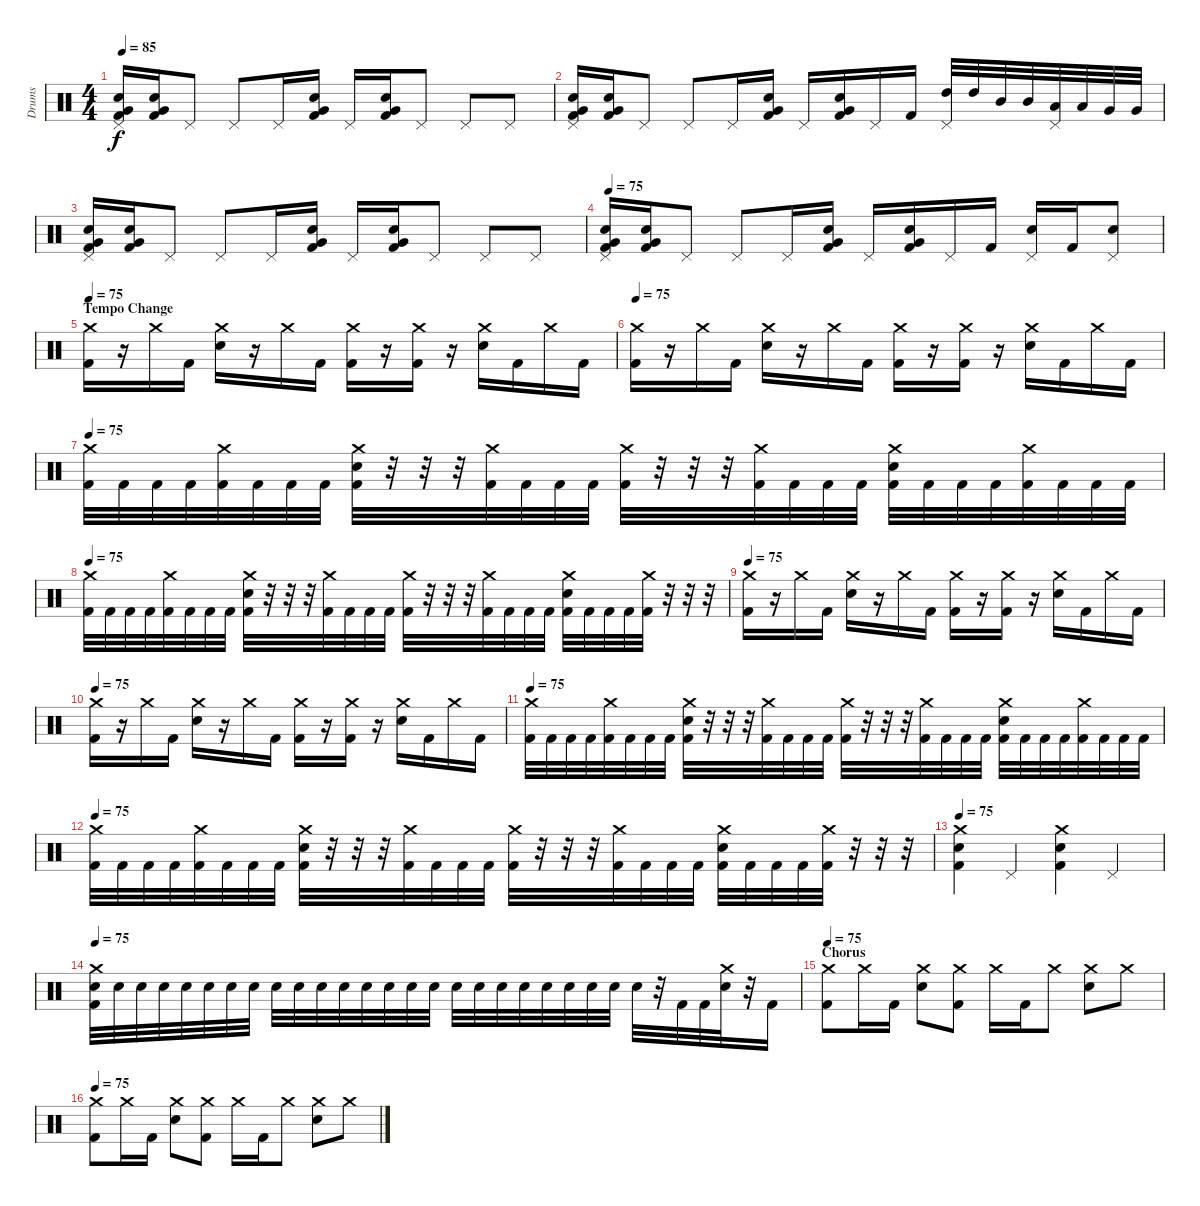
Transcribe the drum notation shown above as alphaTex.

\track ("Drums" "Drums") {instrument percussion}
\staff {score}
\articulation defaults
\ts (4 4)
\tempo 85
\clef neutral
\ks c
("Pedal Hi-Hat (hit)" "Electric Snare (hit)" "Very Low Tom (hit)" "Kick (hit) 2").16{dy f} ("Electric Snare (hit)" "Very Low Tom (hit)" "Kick (hit) 2").16 "Pedal Hi-Hat (hit)".8 "Pedal Hi-Hat (hit)".8 "Pedal Hi-Hat (hit)".16 ("Electric Snare (hit)" "Very Low Tom (hit)" "Kick (hit) 2").16 "Pedal Hi-Hat (hit)".16 ("Electric Snare (hit)" "Very Low Tom (hit)" "Kick (hit) 2").16 "Pedal Hi-Hat (hit)".8 "Pedal Hi-Hat (hit)".8 "Pedal Hi-Hat (hit)".8 |
("Pedal Hi-Hat (hit)" "Electric Snare (hit)" "Very Low Tom (hit)" "Kick (hit) 2").16 ("Electric Snare (hit)" "Very Low Tom (hit)" "Kick (hit) 2").16 "Pedal Hi-Hat (hit)".8 "Pedal Hi-Hat (hit)".8 "Pedal Hi-Hat (hit)".16 ("Electric Snare (hit)" "Very Low Tom (hit)" "Kick (hit) 2").16 "Pedal Hi-Hat (hit)".16 ("Electric Snare (hit)" "Very Low Tom (hit)" "Kick (hit) 2").16 "Pedal Hi-Hat (hit)".16 "Kick (hit) 2".16 ("Pedal Hi-Hat (hit)" "High Tom (hit)").32 "High Tom (hit)".32 "Mid Tom (hit)".32 "Mid Tom (hit)".32 ("Pedal Hi-Hat (hit)" "Low Tom (hit)").32 "Low Tom (hit)".32 "Very Low Tom (hit)".32 "Very Low Tom (hit)".32 |
("Pedal Hi-Hat (hit)" "Electric Snare (hit)" "Very Low Tom (hit)" "Kick (hit) 2").16 ("Electric Snare (hit)" "Very Low Tom (hit)" "Kick (hit) 2").16 "Pedal Hi-Hat (hit)".8 "Pedal Hi-Hat (hit)".8 "Pedal Hi-Hat (hit)".16 ("Electric Snare (hit)" "Very Low Tom (hit)" "Kick (hit) 2").16 "Pedal Hi-Hat (hit)".16 ("Electric Snare (hit)" "Very Low Tom (hit)" "Kick (hit) 2").16 "Pedal Hi-Hat (hit)".8 "Pedal Hi-Hat (hit)".8 "Pedal Hi-Hat (hit)".8 |
\tempo 75
("Pedal Hi-Hat (hit)" "Electric Snare (hit)" "Very Low Tom (hit)" "Kick (hit) 2").16 ("Electric Snare (hit)" "Very Low Tom (hit)" "Kick (hit) 2").16 "Pedal Hi-Hat (hit)".8 "Pedal Hi-Hat (hit)".8 "Pedal Hi-Hat (hit)".16 ("Electric Snare (hit)" "Very Low Tom (hit)" "Kick (hit) 2").16 "Pedal Hi-Hat (hit)".16 ("Electric Snare (hit)" "Very Low Tom (hit)" "Kick (hit) 2").16 "Pedal Hi-Hat (hit)".16 "Kick (hit) 2".16 ("Pedal Hi-Hat (hit)" "Electric Snare (hit)").16 "Kick (hit) 2".16 ("Pedal Hi-Hat (hit)" "Electric Snare (hit)").8 |
\section ("" "Tempo Change")
\tempo 75
("Crash medium (hit)" "Kick (hit) 2").16 r.16 "Crash medium (hit)".16 "Kick (hit) 2".16 ("Crash medium (hit)" "Electric Snare (hit)").16 r.16 "Crash medium (hit)".16 "Kick (hit) 2".16 ("Crash medium (hit)" "Kick (hit) 2").16 r.16 ("Crash medium (hit)" "Kick (hit) 2").16 r.16 ("Crash medium (hit)" "Electric Snare (hit)").16 "Kick (hit) 2".16 "Crash medium (hit)".16 "Kick (hit) 2".16 |
\tempo 75
("Crash medium (hit)" "Kick (hit) 2").16 r.16 "Crash medium (hit)".16 "Kick (hit) 2".16 ("Crash medium (hit)" "Electric Snare (hit)").16 r.16 "Crash medium (hit)".16 "Kick (hit) 2".16 ("Crash medium (hit)" "Kick (hit) 2").16 r.16 ("Crash medium (hit)" "Kick (hit) 2").16 r.16 ("Crash medium (hit)" "Electric Snare (hit)").16 "Kick (hit) 2".16 "Crash medium (hit)".16 "Kick (hit) 2".16 |
\tempo 75
("Crash medium (hit)" "Kick (hit) 2").32 "Kick (hit) 2".32 "Kick (hit) 2".32 "Kick (hit) 2".32 ("Crash medium (hit)" "Kick (hit) 2").32 "Kick (hit) 2".32 "Kick (hit) 2".32 "Kick (hit) 2".32 ("Crash medium (hit)" "Electric Snare (hit)" "Kick (hit) 2").32 r.32 r.32 r.32 ("Crash medium (hit)" "Kick (hit) 2").32 "Kick (hit) 2".32 "Kick (hit) 2".32 "Kick (hit) 2".32 ("Crash medium (hit)" "Kick (hit) 2").32 r.32 r.32 r.32 ("Crash medium (hit)" "Kick (hit) 2").32 "Kick (hit) 2".32 "Kick (hit) 2".32 "Kick (hit) 2".32 ("Crash medium (hit)" "Electric Snare (hit)" "Kick (hit) 2").32 "Kick (hit) 2".32 "Kick (hit) 2".32 "Kick (hit) 2".32 ("Crash medium (hit)" "Kick (hit) 2").32 "Kick (hit) 2".32 "Kick (hit) 2".32 "Kick (hit) 2".32 |
\tempo 75
("Crash medium (hit)" "Kick (hit) 2").32 "Kick (hit) 2".32 "Kick (hit) 2".32 "Kick (hit) 2".32 ("Crash medium (hit)" "Kick (hit) 2").32 "Kick (hit) 2".32 "Kick (hit) 2".32 "Kick (hit) 2".32 ("Crash medium (hit)" "Electric Snare (hit)" "Kick (hit) 2").32 r.32 r.32 r.32 ("Crash medium (hit)" "Kick (hit) 2").32 "Kick (hit) 2".32 "Kick (hit) 2".32 "Kick (hit) 2".32 ("Crash medium (hit)" "Kick (hit) 2").32 r.32 r.32 r.32 ("Crash medium (hit)" "Kick (hit) 2").32 "Kick (hit) 2".32 "Kick (hit) 2".32 "Kick (hit) 2".32 ("Crash medium (hit)" "Electric Snare (hit)" "Kick (hit) 2").32 "Kick (hit) 2".32 "Kick (hit) 2".32 "Kick (hit) 2".32 ("Crash medium (hit)" "Kick (hit) 2").32 r.32 r.32 r.32 |
\tempo 75
("Crash medium (hit)" "Kick (hit) 2").16 r.16 "Crash medium (hit)".16 "Kick (hit) 2".16 ("Crash medium (hit)" "Electric Snare (hit)").16 r.16 "Crash medium (hit)".16 "Kick (hit) 2".16 ("Crash medium (hit)" "Kick (hit) 2").16 r.16 ("Crash medium (hit)" "Kick (hit) 2").16 r.16 ("Crash medium (hit)" "Electric Snare (hit)").16 "Kick (hit) 2".16 "Crash medium (hit)".16 "Kick (hit) 2".16 |
\tempo 75
("Crash medium (hit)" "Kick (hit) 2").16 r.16 "Crash medium (hit)".16 "Kick (hit) 2".16 ("Crash medium (hit)" "Electric Snare (hit)").16 r.16 "Crash medium (hit)".16 "Kick (hit) 2".16 ("Crash medium (hit)" "Kick (hit) 2").16 r.16 ("Crash medium (hit)" "Kick (hit) 2").16 r.16 ("Crash medium (hit)" "Electric Snare (hit)").16 "Kick (hit) 2".16 "Crash medium (hit)".16 "Kick (hit) 2".16 |
\tempo 75
("Crash medium (hit)" "Kick (hit) 2").32 "Kick (hit) 2".32 "Kick (hit) 2".32 "Kick (hit) 2".32 ("Crash medium (hit)" "Kick (hit) 2").32 "Kick (hit) 2".32 "Kick (hit) 2".32 "Kick (hit) 2".32 ("Crash medium (hit)" "Electric Snare (hit)" "Kick (hit) 2").32 r.32 r.32 r.32 ("Crash medium (hit)" "Kick (hit) 2").32 "Kick (hit) 2".32 "Kick (hit) 2".32 "Kick (hit) 2".32 ("Crash medium (hit)" "Kick (hit) 2").32 r.32 r.32 r.32 ("Crash medium (hit)" "Kick (hit) 2").32 "Kick (hit) 2".32 "Kick (hit) 2".32 "Kick (hit) 2".32 ("Crash medium (hit)" "Electric Snare (hit)" "Kick (hit) 2").32 "Kick (hit) 2".32 "Kick (hit) 2".32 "Kick (hit) 2".32 ("Crash medium (hit)" "Kick (hit) 2").32 "Kick (hit) 2".32 "Kick (hit) 2".32 "Kick (hit) 2".32 |
\tempo 75
("Crash medium (hit)" "Kick (hit) 2").32 "Kick (hit) 2".32 "Kick (hit) 2".32 "Kick (hit) 2".32 ("Crash medium (hit)" "Kick (hit) 2").32 "Kick (hit) 2".32 "Kick (hit) 2".32 "Kick (hit) 2".32 ("Crash medium (hit)" "Electric Snare (hit)" "Kick (hit) 2").32 r.32 r.32 r.32 ("Crash medium (hit)" "Kick (hit) 2").32 "Kick (hit) 2".32 "Kick (hit) 2".32 "Kick (hit) 2".32 ("Crash medium (hit)" "Kick (hit) 2").32 r.32 r.32 r.32 ("Crash medium (hit)" "Kick (hit) 2").32 "Kick (hit) 2".32 "Kick (hit) 2".32 "Kick (hit) 2".32 ("Crash medium (hit)" "Electric Snare (hit)" "Kick (hit) 2").32 "Kick (hit) 2".32 "Kick (hit) 2".32 "Kick (hit) 2".32 ("Crash medium (hit)" "Kick (hit) 2").32 r.32 r.32 r.32 |
\tempo 75
("Crash medium (hit)" "Electric Snare (hit)" "Kick (hit) 2").4 "Pedal Hi-Hat (hit)".4 ("Crash medium (hit)" "Electric Snare (hit)" "Kick (hit) 2").4 "Pedal Hi-Hat (hit)".4 |
\tempo 75
("Crash medium (hit)" "Electric Snare (hit)" "Kick (hit) 2").32 "Electric Snare (hit)".32{volume 4} "Electric Snare (hit)".32{volume 13} "Electric Snare (hit)".32 "Electric Snare (hit)".32 "Electric Snare (hit)".32 "Electric Snare (hit)".32 "Electric Snare (hit)".32 "Electric Snare (hit)".32 "Electric Snare (hit)".32 "Electric Snare (hit)".32 "Electric Snare (hit)".32 "Electric Snare (hit)".32 "Electric Snare (hit)".32 "Electric Snare (hit)".32 "Electric Snare (hit)".32 "Electric Snare (hit)".32 "Electric Snare (hit)".32 "Electric Snare (hit)".32 "Electric Snare (hit)".32 "Electric Snare (hit)".32 "Electric Snare (hit)".32 "Electric Snare (hit)".32 "Electric Snare (hit)".32 "Electric Snare (hit)".32 r.32 "Kick (hit) 2".32 "Kick (hit) 2".32 ("Crash medium (hit)" "Electric Snare (hit)").32 r.32 "Kick (hit) 2".16 |
\section ("" "Chorus")
\tempo 75
("Crash medium (hit)" "Kick (hit) 2").8 "Crash medium (hit)".16 "Kick (hit) 2".16 ("Crash medium (hit)" "Electric Snare (hit)").8 ("Crash medium (hit)" "Kick (hit) 2").8 "Crash medium (hit)".16 "Kick (hit) 2".16 "Crash medium (hit)".8 ("Crash medium (hit)" "Electric Snare (hit)").8 "Crash medium (hit)".8 |
\tempo 75
("Crash medium (hit)" "Kick (hit) 2").8 "Crash medium (hit)".16 "Kick (hit) 2".16 ("Crash medium (hit)" "Electric Snare (hit)").8 ("Crash medium (hit)" "Kick (hit) 2").8 "Crash medium (hit)".16 "Kick (hit) 2".16 "Crash medium (hit)".8 ("Crash medium (hit)" "Electric Snare (hit)").8 "Crash medium (hit)".8
